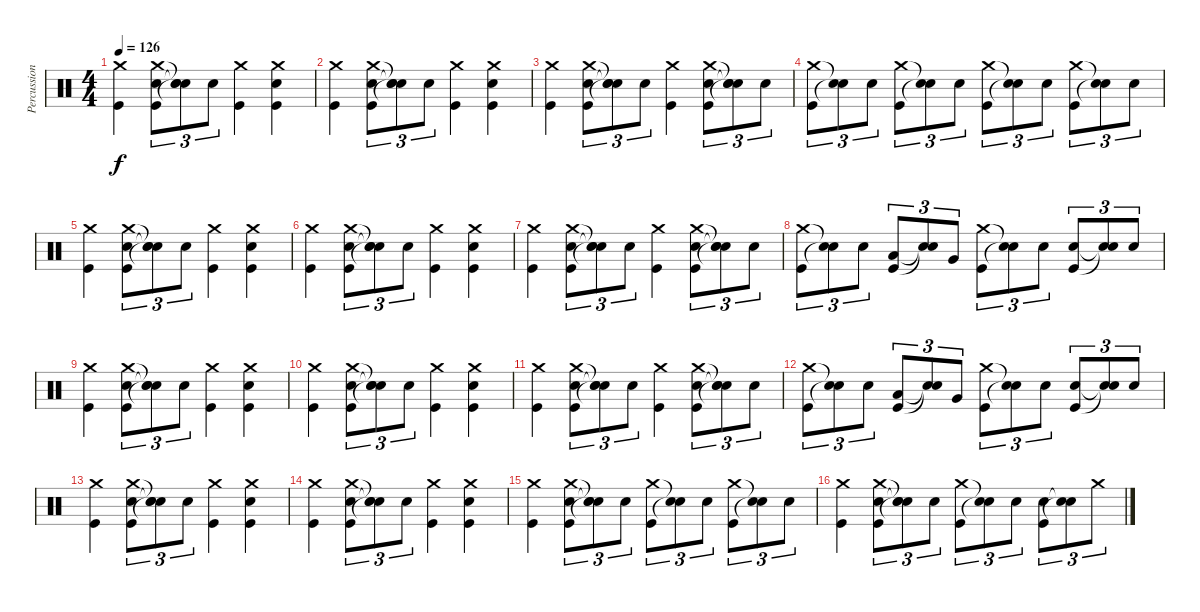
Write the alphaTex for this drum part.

\track ("Percussion" "Percussion") {instrument percussion}
\staff {score}
\articulation defaults
\ts (4 4)
\tempo 126
\clef neutral
\ks c
("Crash medium (hit)" "Kick (hit)").4{dy f} ("Crash medium (hit)" "Snare (hit) 2" "Kick (hit)").8{tu (3 2)} ("Snare (hit)"{t} "Snare (hit)"{t} "Snare (hit)"{t}).8{tu (3 2)} "Snare (hit) 2".8{tu (3 2)} ("Crash medium (hit)" "Kick (hit)").4 ("Crash medium (hit)" "Snare (hit) 2" "Kick (hit)").4 |
("Crash medium (hit)" "Kick (hit)").4 ("Crash medium (hit)" "Snare (hit) 2" "Kick (hit)").8{tu (3 2)} ("Snare (hit)"{t} "Snare (hit)"{t} "Snare (hit)"{t}).8{tu (3 2)} "Snare (hit) 2".8{tu (3 2)} ("Crash medium (hit)" "Kick (hit)").4 ("Crash medium (hit)" "Snare (hit) 2" "Kick (hit)").4 |
("Crash medium (hit)" "Kick (hit)").4 ("Crash medium (hit)" "Snare (hit) 2" "Kick (hit)").8{tu (3 2)} ("Snare (hit)"{t} "Snare (hit)"{t} "Snare (hit)"{t}).8{tu (3 2)} "Snare (hit) 2".8{tu (3 2)} ("Crash medium (hit)" "Kick (hit)").4 ("Crash medium (hit)" "Snare (hit) 2" "Kick (hit)").8{tu (3 2)} ("Snare (hit)"{t} "Snare (hit)"{t} "Snare (hit)"{t}).8{tu (3 2)} "Snare (hit) 2".8{tu (3 2)} |
("Crash medium (hit)" "Kick (hit)").8{tu (3 2)} ("Snare (hit)"{t} "Snare (hit)"{t}).8{tu (3 2)} "Snare (hit) 2".8{tu (3 2)} ("Crash medium (hit)" "Kick (hit)").8{tu (3 2)} ("Snare (hit)"{t} "Snare (hit)"{t}).8{tu (3 2)} "Snare (hit) 2".8{tu (3 2)} ("Crash medium (hit)" "Kick (hit)").8{tu (3 2)} ("Snare (hit)"{t} "Snare (hit)"{t}).8{tu (3 2)} "Snare (hit) 2".8{tu (3 2)} ("Crash medium (hit)" "Kick (hit)").8{tu (3 2)} ("Snare (hit)"{t} "Snare (hit)"{t}).8{tu (3 2)} "Snare (hit) 2".8{tu (3 2)} |
("Crash medium (hit)" "Kick (hit)").4 ("Crash medium (hit)" "Snare (hit) 2" "Kick (hit)").8{tu (3 2)} ("Snare (hit)"{t} "Snare (hit)"{t} "Snare (hit)"{t}).8{tu (3 2)} "Snare (hit) 2".8{tu (3 2)} ("Crash medium (hit)" "Kick (hit)").4 ("Crash medium (hit)" "Snare (hit) 2" "Kick (hit)").4 |
("Crash medium (hit)" "Kick (hit)").4 ("Crash medium (hit)" "Snare (hit) 2" "Kick (hit)").8{tu (3 2)} ("Snare (hit)"{t} "Snare (hit)"{t} "Snare (hit)"{t}).8{tu (3 2)} "Snare (hit) 2".8{tu (3 2)} ("Crash medium (hit)" "Kick (hit)").4 ("Crash medium (hit)" "Snare (hit) 2" "Kick (hit)").4 |
("Crash medium (hit)" "Kick (hit)").4 ("Crash medium (hit)" "Snare (hit) 2" "Kick (hit)").8{tu (3 2)} ("Snare (hit)"{t} "Snare (hit)"{t} "Snare (hit)"{t}).8{tu (3 2)} "Snare (hit) 2".8{tu (3 2)} ("Crash medium (hit)" "Kick (hit)").4 ("Crash medium (hit)" "Snare (hit) 2" "Kick (hit)").8{tu (3 2)} ("Snare (hit)"{t} "Snare (hit)"{t} "Snare (hit)"{t}).8{tu (3 2)} "Snare (hit) 2".8{tu (3 2)} |
("Crash medium (hit)" "Kick (hit)").8{tu (3 2)} ("Snare (hit)"{t} "Snare (hit)"{t}).8{tu (3 2)} "Snare (hit) 2".8{tu (3 2)} ("Low Tom (hit)" "Kick (hit)").8{tu (3 2)} ("Snare (hit)"{t} "Snare (hit)"{t}).8{tu (3 2)} "Very Low Tom (hit)".8{tu (3 2)} ("Crash medium (hit)" "Kick (hit)").8{tu (3 2)} ("Snare (hit)"{t} "Snare (hit)"{t}).8{tu (3 2)} "Snare (hit) 2".8{tu (3 2)} ("Snare (hit) 2" "Kick (hit)").8{tu (3 2)} ("Snare (hit)"{t} "Snare (hit)"{t}).8{tu (3 2)} "Snare (hit) 2".8{tu (3 2)} |
("Crash medium (hit)" "Kick (hit)").4 ("Crash medium (hit)" "Snare (hit) 2" "Kick (hit)").8{tu (3 2)} ("Snare (hit)"{t} "Snare (hit)"{t} "Snare (hit)"{t}).8{tu (3 2)} "Snare (hit) 2".8{tu (3 2)} ("Crash medium (hit)" "Kick (hit)").4 ("Crash medium (hit)" "Snare (hit) 2" "Kick (hit)").4 |
("Crash medium (hit)" "Kick (hit)").4 ("Crash medium (hit)" "Snare (hit) 2" "Kick (hit)").8{tu (3 2)} ("Snare (hit)"{t} "Snare (hit)"{t} "Snare (hit)"{t}).8{tu (3 2)} "Snare (hit) 2".8{tu (3 2)} ("Crash medium (hit)" "Kick (hit)").4 ("Crash medium (hit)" "Snare (hit) 2" "Kick (hit)").4 |
("Crash medium (hit)" "Kick (hit)").4 ("Crash medium (hit)" "Snare (hit) 2" "Kick (hit)").8{tu (3 2)} ("Snare (hit)"{t} "Snare (hit)"{t} "Snare (hit)"{t}).8{tu (3 2)} "Snare (hit) 2".8{tu (3 2)} ("Crash medium (hit)" "Kick (hit)").4 ("Crash medium (hit)" "Snare (hit) 2" "Kick (hit)").8{tu (3 2)} ("Snare (hit)"{t} "Snare (hit)"{t} "Snare (hit)"{t}).8{tu (3 2)} "Snare (hit) 2".8{tu (3 2)} |
("Crash medium (hit)" "Kick (hit)").8{tu (3 2)} ("Snare (hit)"{t} "Snare (hit)"{t}).8{tu (3 2)} "Snare (hit) 2".8{tu (3 2)} ("Low Tom (hit)" "Kick (hit)").8{tu (3 2)} ("Snare (hit)"{t} "Snare (hit)"{t}).8{tu (3 2)} "Very Low Tom (hit)".8{tu (3 2)} ("Crash medium (hit)" "Kick (hit)").8{tu (3 2)} ("Snare (hit)"{t} "Snare (hit)"{t}).8{tu (3 2)} "Snare (hit) 2".8{tu (3 2)} ("Snare (hit) 2" "Kick (hit)").8{tu (3 2)} ("Snare (hit)"{t} "Snare (hit)"{t}).8{tu (3 2)} "Snare (hit) 2".8{tu (3 2)} |
("Crash medium (hit)" "Kick (hit)").4 ("Crash medium (hit)" "Snare (hit) 2" "Kick (hit)").8{tu (3 2)} ("Snare (hit)"{t} "Snare (hit)"{t} "Snare (hit)"{t}).8{tu (3 2)} "Snare (hit) 2".8{tu (3 2)} ("Crash medium (hit)" "Kick (hit)").4 ("Crash medium (hit)" "Snare (hit) 2" "Kick (hit)").4 |
("Crash medium (hit)" "Kick (hit)").4 ("Crash medium (hit)" "Snare (hit) 2" "Kick (hit)").8{tu (3 2)} ("Snare (hit)"{t} "Snare (hit)"{t} "Snare (hit)"{t}).8{tu (3 2)} "Snare (hit) 2".8{tu (3 2)} ("Crash medium (hit)" "Kick (hit)").4 ("Crash medium (hit)" "Snare (hit) 2" "Kick (hit)").4 |
("Crash medium (hit)" "Kick (hit)").4 ("Crash medium (hit)" "Snare (hit) 2" "Kick (hit)").8{tu (3 2)} ("Snare (hit)"{t} "Snare (hit)"{t} "Snare (hit)"{t}).8{tu (3 2)} "Snare (hit) 2".8{tu (3 2)} ("Crash medium (hit)" "Kick (hit)").8{tu (3 2)} ("Snare (hit)"{t} "Snare (hit)"{t}).8{tu (3 2)} "Snare (hit) 2".8{tu (3 2)} ("Crash medium (hit)" "Kick (hit)").8{tu (3 2)} ("Snare (hit)"{t} "Snare (hit)"{t}).8{tu (3 2)} "Snare (hit) 2".8{tu (3 2)} |
("Crash medium (hit)" "Kick (hit)").4 ("Crash medium (hit)" "Snare (hit) 2" "Kick (hit)").8{tu (3 2)} ("Snare (hit)"{t} "Snare (hit)"{t} "Snare (hit)"{t}).8{tu (3 2)} "Snare (hit) 2".8{tu (3 2)} ("Crash medium (hit)" "Kick (hit)").8{tu (3 2)} ("Snare (hit)"{t} "Snare (hit)"{t}).8{tu (3 2)} "Snare (hit) 2".8{tu (3 2)} ("Snare (hit) 2" "Kick (hit)").8{tu (3 2)} ("Snare (hit)"{t} "Snare (hit)"{t}).8{tu (3 2)} "Crash medium (hit)".8{tu (3 2)}
